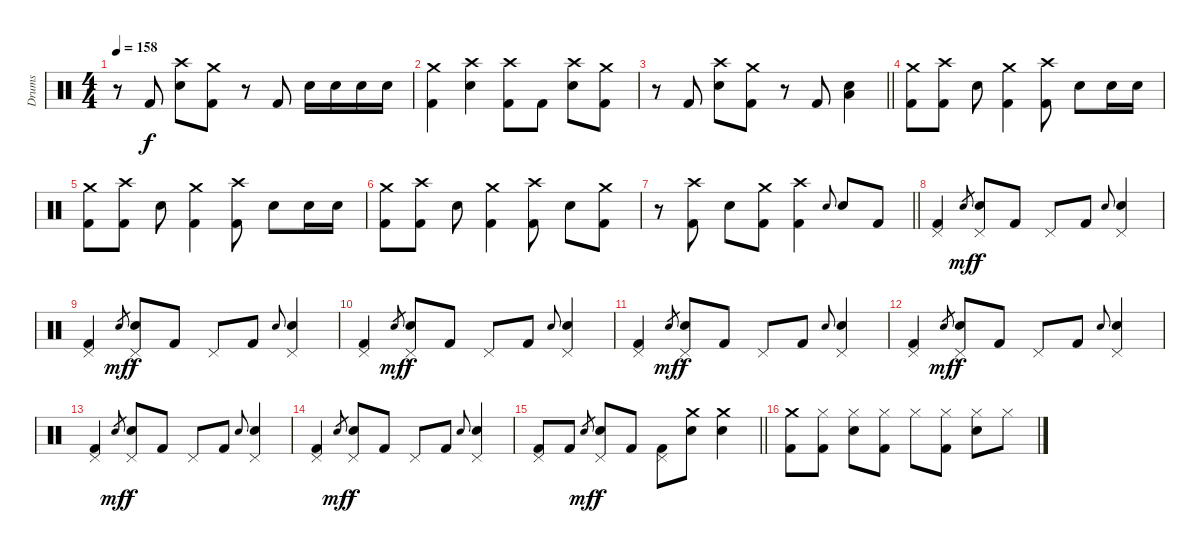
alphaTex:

\track ("Drums" "Drums") {instrument percussion}
\staff {score}
\articulation defaults
\ts (4 4)
\tempo 158
\clef neutral
\ks c
r.8{dy f} "Kick (hit) 2".8 ("Crash high (hit)" "Electric Snare (hit)").8 ("Crash medium (hit)" "Kick (hit) 2").8 r.8 "Kick (hit) 2".8 "Electric Snare (hit)".16 "Electric Snare (hit)".16 "Electric Snare (hit)".16 "Electric Snare (hit)".16 |
("Crash medium (hit)" "Kick (hit) 2").4 ("Crash high (hit)" "Electric Snare (hit)").4 ("Crash high (hit)" "Kick (hit) 2").8 "Kick (hit) 2".8 ("Crash high (hit)" "Electric Snare (hit)").8 ("Crash medium (hit)" "Kick (hit) 2").8 |
\barLineRight lightlight
r.8 "Kick (hit) 2".8 ("Crash high (hit)" "Electric Snare (hit)").8 ("Crash medium (hit)" "Kick (hit) 2").8 r.8 "Kick (hit) 2".8 ("Electric Snare (hit)" "Low Floor Tom (hit)").4 |
("Crash medium (hit)" "Kick (hit) 2").8 ("Crash high (hit)" "Kick (hit) 2").8 "Electric Snare (hit)".8 ("Crash medium (hit)" "Kick (hit) 2").4 ("Crash high (hit)" "Kick (hit) 2").8 "Electric Snare (hit)".8 "Electric Snare (hit)".16 "Electric Snare (hit)".16 |
("Crash medium (hit)" "Kick (hit) 2").8 ("Crash high (hit)" "Kick (hit) 2").8 "Electric Snare (hit)".8 ("Crash medium (hit)" "Kick (hit) 2").4 ("Crash high (hit)" "Kick (hit) 2").8 "Electric Snare (hit)".8 "Electric Snare (hit)".16 "Electric Snare (hit)".16 |
("Crash medium (hit)" "Kick (hit) 2").8 ("Crash high (hit)" "Kick (hit) 2").8 "Electric Snare (hit)".8 ("Crash medium (hit)" "Kick (hit) 2").4 ("Crash high (hit)" "Kick (hit) 2").8 "Electric Snare (hit)".8 ("Crash medium (hit)" "Kick (hit) 2").8 |
\barLineRight lightlight
r.8 ("Crash high (hit)" "Kick (hit) 2").8 "Electric Snare (hit)".8 ("Crash medium (hit)" "Kick (hit) 2").8 ("Crash high (hit)" "Kick (hit) 2").4 "Electric Snare (hit)".8{gr onbeat} "Electric Snare (hit)".8 "Kick (hit) 2".8 |
("Pedal Hi-Hat (hit)" "Kick (hit) 2").4 "Electric Snare (hit)".8{gr dy mf} ("Pedal Hi-Hat (hit)" "Electric Snare (hit)").8{dy f} "Kick (hit) 2".8 "Pedal Hi-Hat (hit)".8 "Kick (hit) 2".8 "Electric Snare (hit)".8{gr onbeat} ("Pedal Hi-Hat (hit)" "Electric Snare (hit)").4 |
("Pedal Hi-Hat (hit)" "Kick (hit) 2").4 "Electric Snare (hit)".8{gr dy mf} ("Pedal Hi-Hat (hit)" "Electric Snare (hit)").8{dy f} "Kick (hit) 2".8 "Pedal Hi-Hat (hit)".8 "Kick (hit) 2".8 "Electric Snare (hit)".8{gr onbeat} ("Pedal Hi-Hat (hit)" "Electric Snare (hit)").4 |
("Pedal Hi-Hat (hit)" "Kick (hit) 2").4 "Electric Snare (hit)".8{gr dy mf} ("Pedal Hi-Hat (hit)" "Electric Snare (hit)").8{dy f} "Kick (hit) 2".8 "Pedal Hi-Hat (hit)".8 "Kick (hit) 2".8 "Electric Snare (hit)".8{gr onbeat} ("Pedal Hi-Hat (hit)" "Electric Snare (hit)").4 |
("Pedal Hi-Hat (hit)" "Kick (hit) 2").4 "Electric Snare (hit)".8{gr dy mf} ("Pedal Hi-Hat (hit)" "Electric Snare (hit)").8{dy f} "Kick (hit) 2".8 "Pedal Hi-Hat (hit)".8 "Kick (hit) 2".8 "Electric Snare (hit)".8{gr onbeat} ("Pedal Hi-Hat (hit)" "Electric Snare (hit)").4 |
("Pedal Hi-Hat (hit)" "Kick (hit) 2").4 "Electric Snare (hit)".8{gr dy mf} ("Pedal Hi-Hat (hit)" "Electric Snare (hit)").8{dy f} "Kick (hit) 2".8 "Pedal Hi-Hat (hit)".8 "Kick (hit) 2".8 "Electric Snare (hit)".8{gr onbeat} ("Pedal Hi-Hat (hit)" "Electric Snare (hit)").4 |
("Pedal Hi-Hat (hit)" "Kick (hit) 2").4 "Electric Snare (hit)".8{gr dy mf} ("Pedal Hi-Hat (hit)" "Electric Snare (hit)").8{dy f} "Kick (hit) 2".8 "Pedal Hi-Hat (hit)".8 "Kick (hit) 2".8 "Electric Snare (hit)".8{gr onbeat} ("Pedal Hi-Hat (hit)" "Electric Snare (hit)").4 |
("Pedal Hi-Hat (hit)" "Kick (hit) 2").4 "Electric Snare (hit)".8{gr dy mf} ("Pedal Hi-Hat (hit)" "Electric Snare (hit)").8{dy f} "Kick (hit) 2".8 "Pedal Hi-Hat (hit)".8 "Kick (hit) 2".8 "Electric Snare (hit)".8{gr onbeat} ("Pedal Hi-Hat (hit)" "Electric Snare (hit)").4 |
\barLineRight lightlight
("Pedal Hi-Hat (hit)" "Kick (hit) 2").8 "Kick (hit) 2".8 "Electric Snare (hit)".8{gr dy mf} ("Pedal Hi-Hat (hit)" "Electric Snare (hit)").8{dy f} "Kick (hit) 2".8 ("Pedal Hi-Hat (hit)" "Kick (hit) 2").8 ("Crash medium (hit)" "Electric Snare (hit)").8 ("Crash medium (hit)" "Electric Snare (hit)").4 |
("Crash medium (hit)" "Kick (hit) 2").8 ("Hi-Hat (closed)" "Kick (hit) 2").8 ("Hi-Hat (closed)" "Electric Snare (hit)").8 ("Hi-Hat (closed)" "Kick (hit) 2").8 "Hi-Hat (closed)".8 ("Hi-Hat (closed)" "Kick (hit) 2").8 ("Hi-Hat (closed)" "Electric Snare (hit)").8 "Hi-Hat (closed)".8
